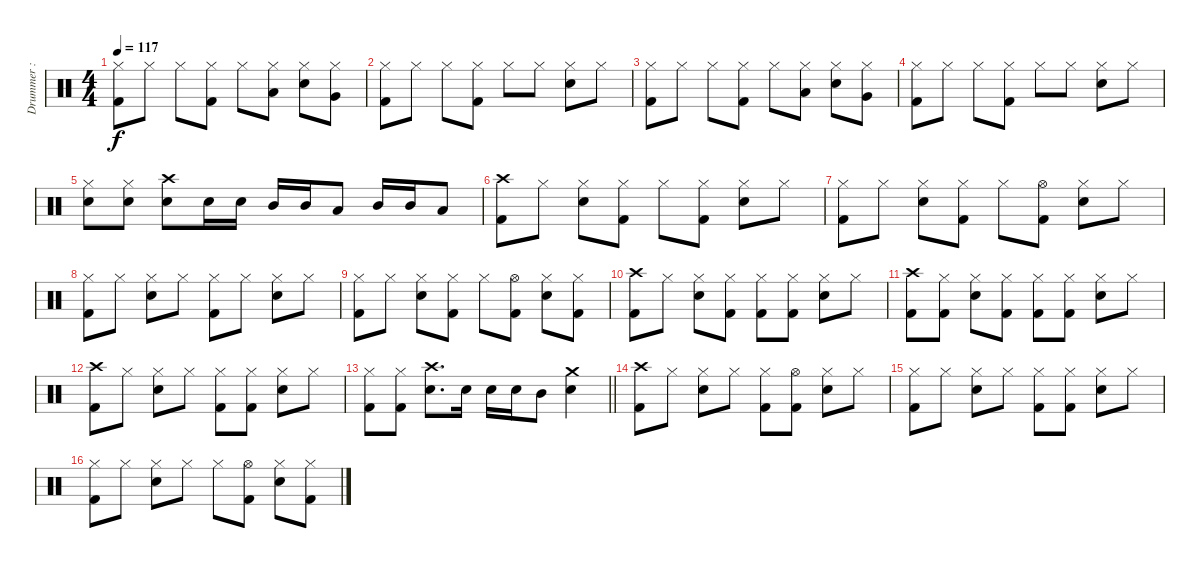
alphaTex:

\track ("Drummer : Tainaka Ritsu - San" "Drummer : ") {instrument percussion}
\staff {score}
\articulation defaults
\ts (4 4)
\tempo 117
\clef neutral
\ks c
("Hi-Hat (closed)" "Kick (hit) 2").8{dy f} "Hi-Hat (closed)".8 "Hi-Hat (closed)".8 ("Hi-Hat (closed)" "Kick (hit) 2").8 "Hi-Hat (closed)".8 ("Low Tom (hit)" "Hi-Hat (closed)").8 ("Hi-Hat (closed)" "Snare (hit) 2").8 ("Very Low Tom (hit)" "Hi-Hat (closed)").8 |
("Hi-Hat (closed)" "Kick (hit) 2").8 "Hi-Hat (closed)".8 "Hi-Hat (closed)".8 ("Hi-Hat (closed)" "Kick (hit) 2").8 "Hi-Hat (closed)".8 "Hi-Hat (closed)".8 ("Hi-Hat (closed)" "Snare (hit) 2").8 "Hi-Hat (closed)".8 |
("Hi-Hat (closed)" "Kick (hit) 2").8 "Hi-Hat (closed)".8 "Hi-Hat (closed)".8 ("Hi-Hat (closed)" "Kick (hit) 2").8 "Hi-Hat (closed)".8 ("Low Tom (hit)" "Hi-Hat (closed)").8 ("Hi-Hat (closed)" "Snare (hit) 2").8 ("Very Low Tom (hit)" "Hi-Hat (closed)").8 |
("Hi-Hat (closed)" "Kick (hit) 2").8 "Hi-Hat (closed)".8 "Hi-Hat (closed)".8 ("Hi-Hat (closed)" "Kick (hit) 2").8 "Hi-Hat (closed)".8 "Hi-Hat (closed)".8 ("Hi-Hat (closed)" "Snare (hit) 2").8 "Hi-Hat (closed)".8 |
("Hi-Hat (closed)" "Snare (hit) 2").8 ("Hi-Hat (closed)" "Snare (hit) 2").8 ("Crash high (hit)" "Snare (hit) 2").8 "Snare (hit) 2".16 "Snare (hit) 2".16 "Mid Tom (hit)".16 "Mid Tom (hit)".16 "Low Tom (hit)".8 "Mid Tom (hit)".16 "Mid Tom (hit)".16 "Low Tom (hit)".8 |
("Crash high (hit)" "Kick (hit) 2").8 "Hi-Hat (closed)".8 ("Hi-Hat (closed)" "Snare (hit) 2").8 ("Hi-Hat (closed)" "Kick (hit) 2").8 "Hi-Hat (closed)".8 ("Hi-Hat (closed)" "Kick (hit) 2").8 ("Hi-Hat (closed)" "Snare (hit) 2").8 "Hi-Hat (closed)".8 |
("Hi-Hat (closed)" "Kick (hit) 2").8 "Hi-Hat (closed)".8 ("Hi-Hat (closed)" "Snare (hit) 2").8 ("Hi-Hat (closed)" "Kick (hit) 2").8 "Hi-Hat (closed)".8 ("Hi-Hat (open)" "Kick (hit) 2").8 ("Hi-Hat (closed)" "Snare (hit) 2").8 "Hi-Hat (closed)".8 |
("Hi-Hat (closed)" "Kick (hit) 2").8 "Hi-Hat (closed)".8 ("Hi-Hat (closed)" "Snare (hit) 2").8 "Hi-Hat (closed)".8 ("Hi-Hat (closed)" "Kick (hit) 2").8 "Hi-Hat (closed)".8 ("Hi-Hat (closed)" "Snare (hit) 2").8 "Hi-Hat (closed)".8 |
("Hi-Hat (closed)" "Kick (hit) 2").8 "Hi-Hat (closed)".8 ("Hi-Hat (closed)" "Snare (hit) 2").8 ("Hi-Hat (closed)" "Kick (hit) 2").8 "Hi-Hat (closed)".8 ("Hi-Hat (open)" "Kick (hit) 2").8 ("Hi-Hat (closed)" "Snare (hit) 2").8 ("Hi-Hat (closed)" "Kick (hit) 2").8 |
("Crash high (hit)" "Kick (hit) 2").8 "Hi-Hat (closed)".8 ("Hi-Hat (closed)" "Snare (hit) 2").8 ("Hi-Hat (closed)" "Kick (hit) 2").8 ("Hi-Hat (closed)" "Kick (hit) 2").8 ("Hi-Hat (closed)" "Kick (hit) 2").8 ("Hi-Hat (closed)" "Snare (hit) 2").8 "Hi-Hat (closed)".8 |
("Crash high (hit)" "Kick (hit) 2").8 ("Hi-Hat (closed)" "Kick (hit) 2").8 ("Hi-Hat (closed)" "Snare (hit) 2").8 ("Hi-Hat (closed)" "Kick (hit) 2").8 ("Hi-Hat (closed)" "Kick (hit) 2").8 ("Hi-Hat (closed)" "Kick (hit) 2").8 ("Hi-Hat (closed)" "Snare (hit) 2").8 "Hi-Hat (closed)".8 |
("Crash high (hit)" "Kick (hit) 2").8 "Hi-Hat (closed)".8 ("Hi-Hat (closed)" "Snare (hit) 2").8 "Hi-Hat (closed)".8 ("Hi-Hat (closed)" "Kick (hit) 2").8 ("Hi-Hat (closed)" "Kick (hit) 2").8 ("Hi-Hat (closed)" "Snare (hit) 2").8 "Hi-Hat (closed)".8 |
\barLineRight lightlight
("Hi-Hat (closed)" "Kick (hit) 2").8 ("Hi-Hat (closed)" "Kick (hit) 2").8 ("Crash high (hit)" "Snare (hit) 2").8{d} "Snare (hit) 2".16 "Snare (hit) 2".16 "Snare (hit) 2".16 "Mid Tom (hit)".8 ("Crash medium (hit)" "Snare (hit) 2").4 |
("Crash high (hit)" "Kick (hit) 2").8 "Hi-Hat (closed)".8 ("Hi-Hat (closed)" "Snare (hit) 2").8 "Hi-Hat (closed)".8 ("Hi-Hat (closed)" "Kick (hit) 2").8 ("Hi-Hat (open)" "Kick (hit) 2").8 ("Hi-Hat (closed)" "Snare (hit) 2").8 "Hi-Hat (closed)".8 |
("Hi-Hat (closed)" "Kick (hit) 2").8 "Hi-Hat (closed)".8 ("Hi-Hat (closed)" "Snare (hit) 2").8 "Hi-Hat (closed)".8 ("Hi-Hat (closed)" "Kick (hit) 2").8 ("Hi-Hat (closed)" "Kick (hit) 2").8 ("Hi-Hat (closed)" "Snare (hit) 2").8 "Hi-Hat (closed)".8 |
("Hi-Hat (closed)" "Kick (hit) 2").8 "Hi-Hat (closed)".8 ("Hi-Hat (closed)" "Snare (hit) 2").8 "Hi-Hat (closed)".8 "Hi-Hat (closed)".8 ("Hi-Hat (open)" "Kick (hit) 2").8 ("Hi-Hat (closed)" "Snare (hit) 2").8 ("Hi-Hat (closed)" "Kick (hit) 2").8
